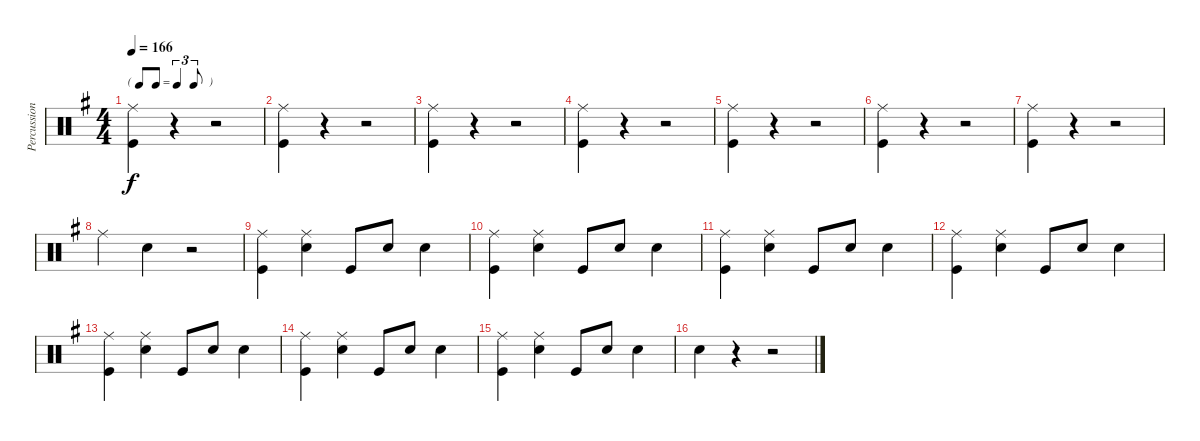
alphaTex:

\track ("Percussion" "Percussion") {instrument percussion}
\staff {score}
\articulation defaults
\ts (4 4)
\tf triplet8th
\tempo 166
\clef neutral
\ks g
("Ride (middle)" "Kick (hit)").4{dy f} r.4 r.2 |
("Ride (middle)" "Kick (hit)").4 r.4 r.2 |
("Ride (middle)" "Kick (hit)").4 r.4 r.2 |
("Ride (middle)" "Kick (hit)").4 r.4 r.2 |
("Ride (middle)" "Kick (hit)").4 r.4 r.2 |
("Ride (middle)" "Kick (hit)").4 r.4 r.2 |
("Ride (middle)" "Kick (hit)").4 r.4 r.2 |
"Ride (middle)".4 "Snare (hit) 2".4 r.2 |
("Ride (middle)" "Kick (hit)").4 ("Ride (middle)" "Snare (hit) 2").4 "Kick (hit)".8 "Snare (hit) 2".8 "Snare (hit) 2".4 |
("Ride (middle)" "Kick (hit)").4 ("Ride (middle)" "Snare (hit) 2").4 "Kick (hit)".8 "Snare (hit) 2".8 "Snare (hit) 2".4 |
("Ride (middle)" "Kick (hit)").4 ("Ride (middle)" "Snare (hit) 2").4 "Kick (hit)".8 "Snare (hit) 2".8 "Snare (hit) 2".4 |
("Ride (middle)" "Kick (hit)").4 ("Ride (middle)" "Snare (hit) 2").4 "Kick (hit)".8 "Snare (hit) 2".8 "Snare (hit) 2".4 |
("Ride (middle)" "Kick (hit)").4 ("Ride (middle)" "Snare (hit) 2").4 "Kick (hit)".8 "Snare (hit) 2".8 "Snare (hit) 2".4 |
("Ride (middle)" "Kick (hit)").4 ("Ride (middle)" "Snare (hit) 2").4 "Kick (hit)".8 "Snare (hit) 2".8 "Snare (hit) 2".4 |
("Ride (middle)" "Kick (hit)").4 ("Ride (middle)" "Snare (hit) 2").4 "Kick (hit)".8 "Snare (hit) 2".8 "Snare (hit) 2".4 |
"Snare (hit) 2".4 r.4 r.2
